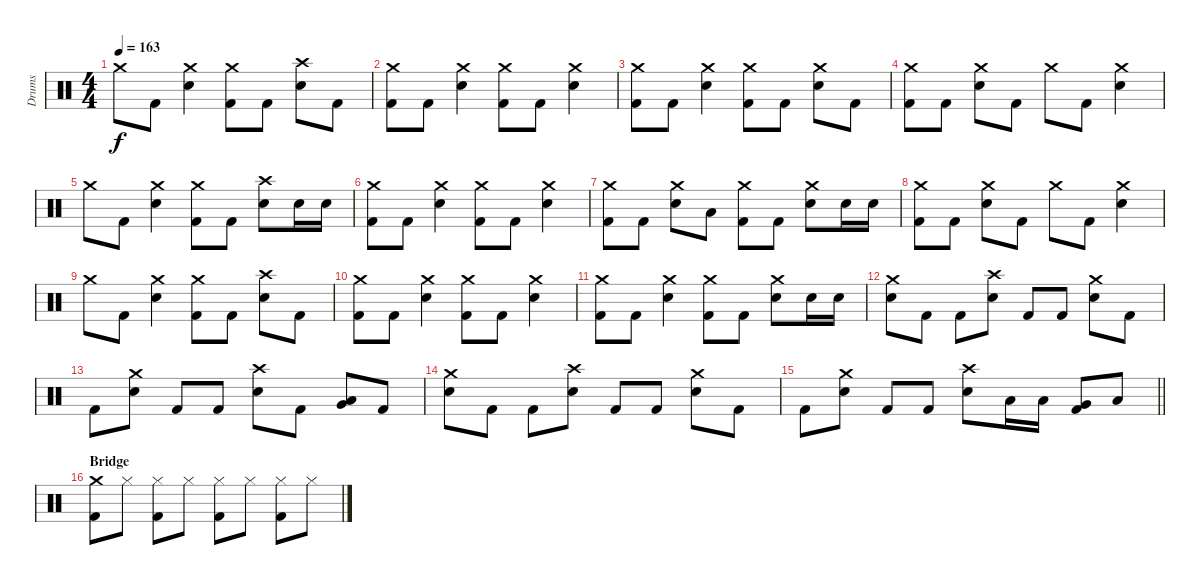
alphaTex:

\track ("Drums" "Drums") {instrument percussion}
\staff {score}
\articulation defaults
\ts (4 4)
\tempo 163
\clef neutral
\ks c "Crash medium (hit)".8{dy f} "Kick (hit) 2".8
("Crash medium (hit)" "Electric Snare (hit)").4 ("Crash medium (hit)" "Kick (hit) 2").8 "Kick (hit) 2".8 ("Crash high (hit)" "Electric Snare (hit)").8 "Kick (hit) 2".8 |
("Crash medium (hit)" "Kick (hit) 2").8 "Kick (hit) 2".8 ("Crash medium (hit)" "Electric Snare (hit)").4 ("Crash medium (hit)" "Kick (hit) 2").8 "Kick (hit) 2".8 ("Crash medium (hit)" "Electric Snare (hit)").4 |
("Crash medium (hit)" "Kick (hit) 2").8 "Kick (hit) 2".8 ("Crash medium (hit)" "Electric Snare (hit)").4 ("Crash medium (hit)" "Kick (hit) 2").8 "Kick (hit) 2".8 ("Crash medium (hit)" "Electric Snare (hit)").8 "Kick (hit) 2".8 |
("Crash medium (hit)" "Kick (hit) 2").8 "Kick (hit) 2".8 ("Crash medium (hit)" "Electric Snare (hit)").8 "Kick (hit) 2".8 "Crash medium (hit)".8 "Kick (hit) 2".8 ("Crash medium (hit)" "Electric Snare (hit)").4 |
"Crash medium (hit)".8 "Kick (hit) 2".8 ("Crash medium (hit)" "Electric Snare (hit)").4 ("Crash medium (hit)" "Kick (hit) 2").8 "Kick (hit) 2".8 ("Crash high (hit)" "Electric Snare (hit)").8 "Electric Snare (hit)".16 "Electric Snare (hit)".16 |
("Crash medium (hit)" "Kick (hit) 2").8 "Kick (hit) 2".8 ("Crash medium (hit)" "Electric Snare (hit)").4 ("Crash medium (hit)" "Kick (hit) 2").8 "Kick (hit) 2".8 ("Crash medium (hit)" "Electric Snare (hit)").4 |
("Crash medium (hit)" "Kick (hit) 2").8 "Kick (hit) 2".8 ("Crash medium (hit)" "Electric Snare (hit)").8 "Low Tom (hit)".8 ("Crash medium (hit)" "Kick (hit) 2").8 "Kick (hit) 2".8 ("Crash medium (hit)" "Electric Snare (hit)").8 "Electric Snare (hit)".16 "Electric Snare (hit)".16 |
("Crash medium (hit)" "Kick (hit) 2").8 "Kick (hit) 2".8 ("Crash medium (hit)" "Electric Snare (hit)").8 "Kick (hit) 2".8 "Crash medium (hit)".8 "Kick (hit) 2".8 ("Crash medium (hit)" "Electric Snare (hit)").4 |
"Crash medium (hit)".8 "Kick (hit) 2".8 ("Crash medium (hit)" "Electric Snare (hit)").4 ("Crash medium (hit)" "Kick (hit) 2").8 "Kick (hit) 2".8 ("Crash high (hit)" "Electric Snare (hit)").8 "Kick (hit) 2".8 |
("Crash medium (hit)" "Kick (hit) 2").8 "Kick (hit) 2".8 ("Crash medium (hit)" "Electric Snare (hit)").4 ("Crash medium (hit)" "Kick (hit) 2").8 "Kick (hit) 2".8 ("Crash medium (hit)" "Electric Snare (hit)").4 |
("Crash medium (hit)" "Kick (hit) 2").8 "Kick (hit) 2".8 ("Crash medium (hit)" "Electric Snare (hit)").4 ("Crash medium (hit)" "Kick (hit) 2").8 "Kick (hit) 2".8 ("Crash medium (hit)" "Electric Snare (hit)").8 "Electric Snare (hit)".16 "Electric Snare (hit)".16 |
("Crash medium (hit)" "Electric Snare (hit)").8 "Kick (hit) 2".8 "Kick (hit) 2".8 ("Crash high (hit)" "Electric Snare (hit)").8 "Kick (hit) 2".8 "Kick (hit) 2".8 ("Crash medium (hit)" "Electric Snare (hit)").8 "Kick (hit) 2".8 |
"Kick (hit) 2".8 ("Crash medium (hit)" "Electric Snare (hit)").8 "Kick (hit) 2".8 "Kick (hit) 2".8 ("Crash high (hit)" "Electric Snare (hit)").8 "Kick (hit) 2".8 ("Low Tom (hit)" "Very Low Tom (hit)").8 "Kick (hit) 2".8 |
("Crash medium (hit)" "Electric Snare (hit)").8 "Kick (hit) 2".8 "Kick (hit) 2".8 ("Crash high (hit)" "Electric Snare (hit)").8 "Kick (hit) 2".8 "Kick (hit) 2".8 ("Crash medium (hit)" "Electric Snare (hit)").8 "Kick (hit) 2".8 |
\barLineRight lightlight "Kick (hit) 2".8
("Crash medium (hit)" "Electric Snare (hit)").8 "Kick (hit) 2".8 "Kick (hit) 2".8 ("Crash high (hit)" "Electric Snare (hit)").8 "Low Tom (hit)".16 "Low Tom (hit)".16 ("Very Low Tom (hit)" "Kick (hit) 2").8 "Low Floor Tom (hit)".8 |
\section ("" "Bridge")
("Crash medium (hit)" "Kick (hit) 2").8 "Hi-Hat (closed)".8 ("Hi-Hat (closed)" "Kick (hit) 2").8 "Hi-Hat (closed)".8 ("Hi-Hat (closed)" "Kick (hit) 2").8 "Hi-Hat (closed)".8 ("Hi-Hat (closed)" "Kick (hit) 2").8 "Hi-Hat (closed)".8
